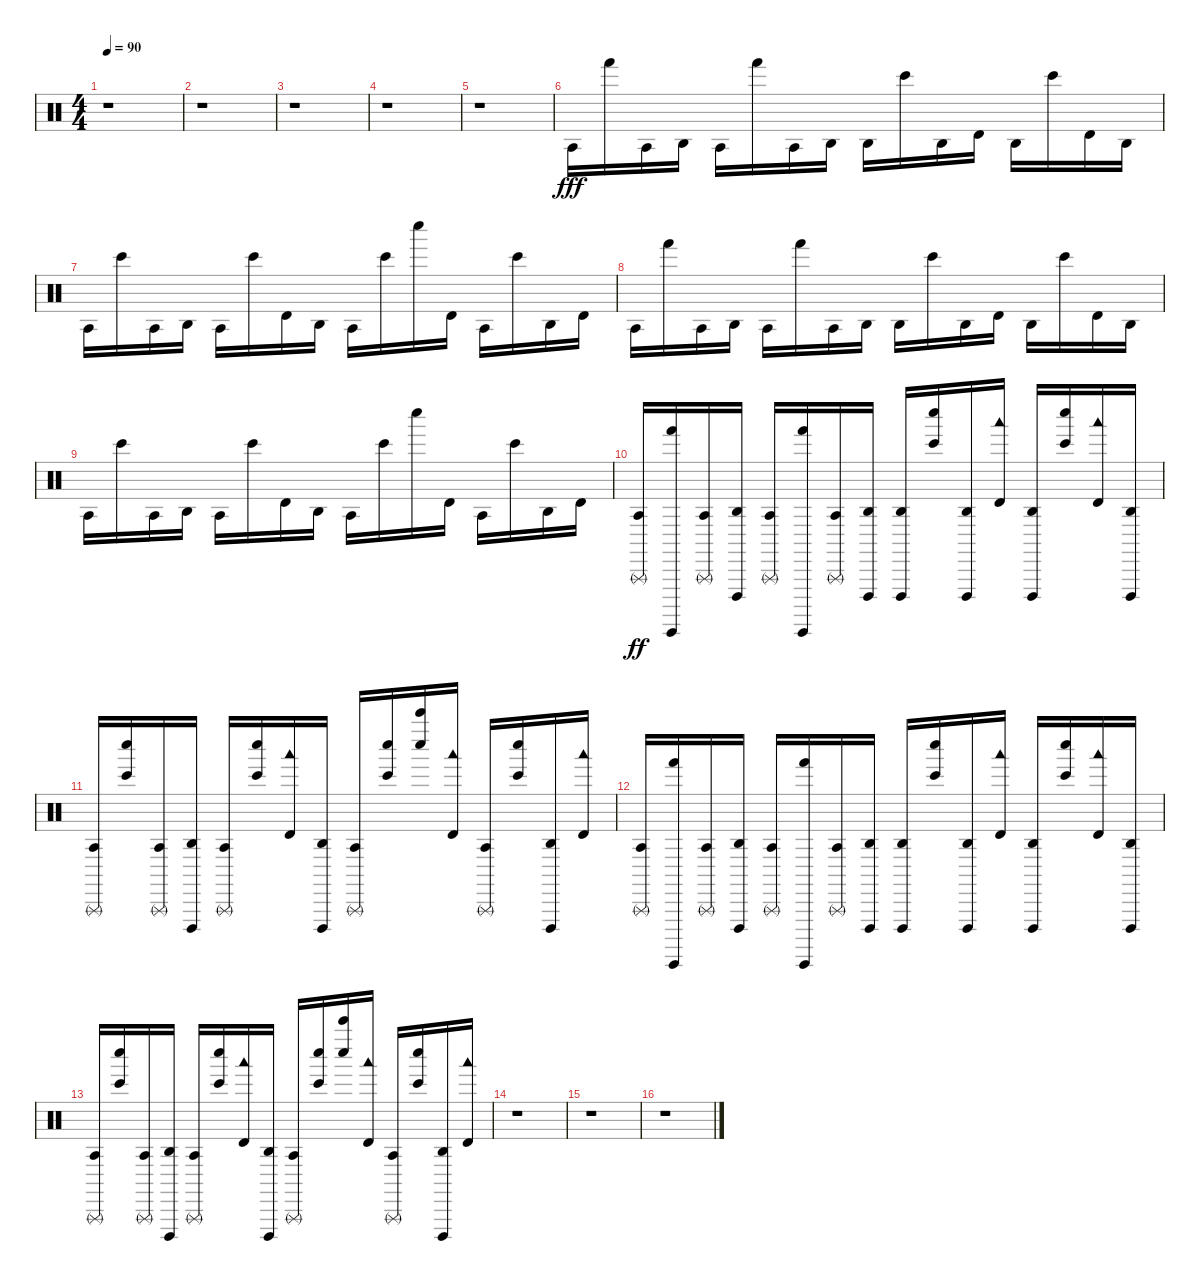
\track "" {instrument percussion}
\staff {score}
\articulation defaults
\ts (4 4)
\tempo 90
\clef neutral
\ks c
r.1{dy fff} |
r.1 |
r.1 |
r.1 |
r.1 |
"Agogo tow (hit)".16 "Hand (hit)".16 "Agogo tow (hit)".16 "Agogo high (hit)".16 "Agogo tow (hit)".16 "Hand (hit)".16 "Agogo tow (hit)".16 "Agogo high (hit)".16 "Agogo high (hit)".16 "Bongo High (hit)".16 "Agogo high (hit)".16 "Timbale high (hit)".16 "Agogo high (hit)".16 "Bongo High (hit)".16 "Timbale high (hit)".16 "Agogo high (hit)".16 |
"Agogo tow (hit)".16 "Bongo High (hit)".16 "Agogo tow (hit)".16 "Agogo high (hit)".16 "Agogo tow (hit)".16 "Bongo High (hit)".16 "Timbale high (hit)".16 "Agogo high (hit)".16 "Agogo tow (hit)".16 "Bongo High (hit)".16 "Whistle low (hit)".16 "Timbale high (hit)".16 "Agogo tow (hit)".16 "Bongo High (hit)".16 "Agogo high (hit)".16 "Timbale high (hit)".16 |
"Agogo tow (hit)".16 "Hand (hit)".16 "Agogo tow (hit)".16 "Agogo high (hit)".16 "Agogo tow (hit)".16 "Hand (hit)".16 "Agogo tow (hit)".16 "Agogo high (hit)".16 "Agogo high (hit)".16 "Bongo High (hit)".16 "Agogo high (hit)".16 "Timbale high (hit)".16 "Agogo high (hit)".16 "Bongo High (hit)".16 "Timbale high (hit)".16 "Agogo high (hit)".16 |
"Agogo tow (hit)".16 "Bongo High (hit)".16 "Agogo tow (hit)".16 "Agogo high (hit)".16 "Agogo tow (hit)".16 "Bongo High (hit)".16 "Timbale high (hit)".16 "Agogo high (hit)".16 "Agogo tow (hit)".16 "Bongo High (hit)".16 "Whistle low (hit)".16 "Timbale high (hit)".16 "Agogo tow (hit)".16 "Bongo High (hit)".16 "Agogo high (hit)".16 "Timbale high (hit)".16 |
("Agogo tow (hit)" "Triangle (rnute)").16{dy ff} ("Hand (hit)" "Guiro (hit)").16 ("Agogo tow (hit)" "Triangle (rnute)").16 ("Agogo high (hit)" "Cuica (open)").16 ("Agogo tow (hit)" "Triangle (rnute)").16 ("Hand (hit)" "Guiro (hit)").16 ("Agogo tow (hit)" "Triangle (rnute)").16 ("Agogo high (hit)" "Cuica (open)").16 ("Agogo high (hit)" "Cuica (open)").16 ("Bongo High (hit)" "Whistle low (hit)").16 ("Agogo high (hit)" "Cuica (open)").16 ("Timbale high (hit)" "Woodblock low (hit)").16 ("Agogo high (hit)" "Cuica (open)").16 ("Bongo High (hit)" "Whistle low (hit)").16 ("Timbale high (hit)" "Woodblock low (hit)").16 ("Agogo high (hit)" "Cuica (open)").16 |
("Agogo tow (hit)" "Triangle (rnute)").16 ("Bongo High (hit)" "Whistle low (hit)").16 ("Agogo tow (hit)" "Triangle (rnute)").16 ("Agogo high (hit)" "Cuica (open)").16 ("Agogo tow (hit)" "Triangle (rnute)").16 ("Bongo High (hit)" "Whistle low (hit)").16 ("Timbale high (hit)" "Woodblock low (hit)").16 ("Agogo high (hit)" "Cuica (open)").16 ("Agogo tow (hit)" "Triangle (rnute)").16 ("Bongo High (hit)" "Whistle low (hit)").16 ("Whistle low (hit)" "Bell Tree (hit)").16 ("Timbale high (hit)" "Woodblock low (hit)").16 ("Agogo tow (hit)" "Triangle (rnute)").16 ("Bongo High (hit)" "Whistle low (hit)").16 ("Agogo high (hit)" "Cuica (open)").16 ("Timbale high (hit)" "Woodblock low (hit)").16 |
("Agogo tow (hit)" "Triangle (rnute)").16 ("Hand (hit)" "Guiro (hit)").16 ("Agogo tow (hit)" "Triangle (rnute)").16 ("Agogo high (hit)" "Cuica (open)").16 ("Agogo tow (hit)" "Triangle (rnute)").16 ("Hand (hit)" "Guiro (hit)").16 ("Agogo tow (hit)" "Triangle (rnute)").16 ("Agogo high (hit)" "Cuica (open)").16 ("Agogo high (hit)" "Cuica (open)").16 ("Bongo High (hit)" "Whistle low (hit)").16 ("Agogo high (hit)" "Cuica (open)").16 ("Timbale high (hit)" "Woodblock low (hit)").16 ("Agogo high (hit)" "Cuica (open)").16 ("Bongo High (hit)" "Whistle low (hit)").16 ("Timbale high (hit)" "Woodblock low (hit)").16 ("Agogo high (hit)" "Cuica (open)").16 |
("Agogo tow (hit)" "Triangle (rnute)").16 ("Bongo High (hit)" "Whistle low (hit)").16 ("Agogo tow (hit)" "Triangle (rnute)").16 ("Agogo high (hit)" "Cuica (open)").16 ("Agogo tow (hit)" "Triangle (rnute)").16 ("Bongo High (hit)" "Whistle low (hit)").16 ("Timbale high (hit)" "Woodblock low (hit)").16 ("Agogo high (hit)" "Cuica (open)").16 ("Agogo tow (hit)" "Triangle (rnute)").16 ("Bongo High (hit)" "Whistle low (hit)").16 ("Whistle low (hit)" "Bell Tree (hit)").16 ("Timbale high (hit)" "Woodblock low (hit)").16 ("Agogo tow (hit)" "Triangle (rnute)").16 ("Bongo High (hit)" "Whistle low (hit)").16 ("Agogo high (hit)" "Cuica (open)").16 ("Timbale high (hit)" "Woodblock low (hit)").16 |
r.1 |
r.1 |
r.1
